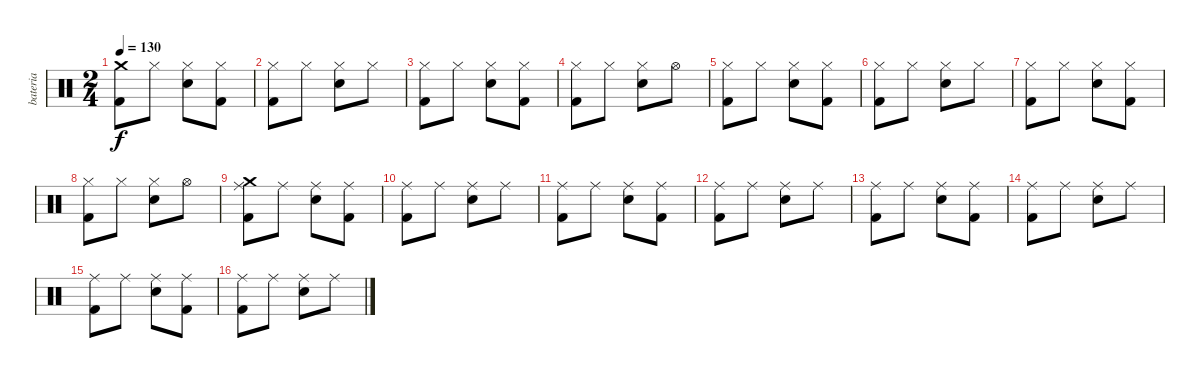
\track ("bateria" "bateria") {instrument percussion}
\staff {score}
\articulation defaults
\ts (2 4)
\tempo 130
\clef neutral
\ks c
("Crash medium (hit)" "Kick (hit) 2").8{dy f} "Hi-Hat (closed)".8 ("Hi-Hat (closed)" "Electric Snare (hit)").8 ("Hi-Hat (closed)" "Kick (hit) 2").8 |
("Hi-Hat (closed)" "Kick (hit) 2").8 "Hi-Hat (closed)".8 ("Hi-Hat (closed)" "Electric Snare (hit)").8 "Hi-Hat (closed)".8 |
("Hi-Hat (closed)" "Kick (hit) 2").8 "Hi-Hat (closed)".8 ("Hi-Hat (closed)" "Electric Snare (hit)").8 ("Hi-Hat (closed)" "Kick (hit) 2").8 |
("Hi-Hat (closed)" "Kick (hit) 2").8 "Hi-Hat (closed)".8 ("Hi-Hat (closed)" "Electric Snare (hit)").8 "Hi-Hat (open)".8 |
("Hi-Hat (closed)" "Kick (hit) 2").8 "Hi-Hat (closed)".8 ("Hi-Hat (closed)" "Electric Snare (hit)").8 ("Hi-Hat (closed)" "Kick (hit) 2").8 |
("Hi-Hat (closed)" "Kick (hit) 2").8 "Hi-Hat (closed)".8 ("Hi-Hat (closed)" "Electric Snare (hit)").8 "Hi-Hat (closed)".8 |
("Hi-Hat (closed)" "Kick (hit) 2").8 "Hi-Hat (closed)".8 ("Hi-Hat (closed)" "Electric Snare (hit)").8 ("Hi-Hat (closed)" "Kick (hit) 2").8 |
("Hi-Hat (closed)" "Kick (hit) 2").8 "Hi-Hat (closed)".8 ("Hi-Hat (closed)" "Electric Snare (hit)").8 "Hi-Hat (open)".8 |
("Crash medium (hit)" "Ride (middle)" "Kick (hit) 2").8 "Ride (middle)".8 ("Ride (middle)" "Electric Snare (hit)").8 ("Ride (middle)" "Kick (hit) 2").8 |
("Ride (middle)" "Kick (hit) 2").8 "Ride (middle)".8 ("Ride (middle)" "Electric Snare (hit)").8 "Ride (middle)".8 |
("Ride (middle)" "Kick (hit) 2").8 "Ride (middle)".8 ("Ride (middle)" "Electric Snare (hit)").8 ("Ride (middle)" "Kick (hit) 2").8 |
("Ride (middle)" "Kick (hit) 2").8 "Ride (middle)".8 ("Ride (middle)" "Electric Snare (hit)").8 "Ride (middle)".8 |
("Ride (middle)" "Kick (hit) 2").8 "Ride (middle)".8 ("Ride (middle)" "Electric Snare (hit)").8 ("Ride (middle)" "Kick (hit) 2").8 |
("Ride (middle)" "Kick (hit) 2").8 "Ride (middle)".8 ("Ride (middle)" "Electric Snare (hit)").8 "Ride (middle)".8 |
("Ride (middle)" "Kick (hit) 2").8 "Ride (middle)".8 ("Ride (middle)" "Electric Snare (hit)").8 ("Ride (middle)" "Kick (hit) 2").8 |
("Ride (middle)" "Kick (hit) 2").8 "Ride (middle)".8 ("Ride (middle)" "Electric Snare (hit)").8 "Ride (middle)".8
